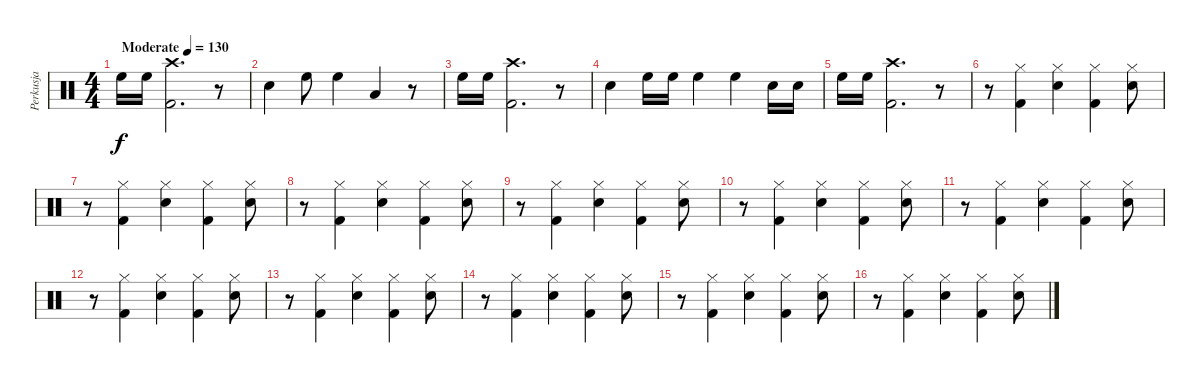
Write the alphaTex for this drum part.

\track ("Perkusja" "Perkusja") {instrument percussion}
\staff {score}
\articulation defaults
\ts (4 4)
\tempo (130 "Moderate")
\clef neutral
\ks c "High Floor Tom (hit)".16{dy f} "High Floor Tom (hit)".16
("Crash high (hit)" "Kick (hit) 2").2{d} r.8 |
"Snare (hit) 2".4 "High Floor Tom (hit)".8 "High Floor Tom (hit)".4 "Low Tom (hit)".4 r.8 |
"High Floor Tom (hit)".16 "High Floor Tom (hit)".16 ("Crash high (hit)" "Kick (hit) 2").2{d} r.8 |
"Snare (hit) 2".4 "High Floor Tom (hit)".16 "High Floor Tom (hit)".16 "High Floor Tom (hit)".4 "High Floor Tom (hit)".4 "Snare (hit) 2".16 "Snare (hit) 2".16 |
"High Floor Tom (hit)".16 "High Floor Tom (hit)".16 ("Crash high (hit)" "Kick (hit) 2").2{d} r.8 |
r.8 ("Hi-Hat (closed)" "Kick (hit) 2").4 ("Hi-Hat (closed)" "Snare (hit) 2").4 ("Hi-Hat (closed)" "Kick (hit) 2").4 ("Hi-Hat (closed)" "Snare (hit) 2").8 |
r.8 ("Hi-Hat (closed)" "Kick (hit) 2").4 ("Hi-Hat (closed)" "Snare (hit) 2").4 ("Hi-Hat (closed)" "Kick (hit) 2").4 ("Hi-Hat (closed)" "Snare (hit) 2").8 |
r.8 ("Hi-Hat (closed)" "Kick (hit) 2").4 ("Hi-Hat (closed)" "Snare (hit) 2").4 ("Hi-Hat (closed)" "Kick (hit) 2").4 ("Hi-Hat (closed)" "Snare (hit) 2").8 |
r.8 ("Hi-Hat (closed)" "Kick (hit) 2").4 ("Hi-Hat (closed)" "Snare (hit) 2").4 ("Hi-Hat (closed)" "Kick (hit) 2").4 ("Hi-Hat (closed)" "Snare (hit) 2").8 |
r.8 ("Hi-Hat (closed)" "Kick (hit) 2").4 ("Hi-Hat (closed)" "Snare (hit) 2").4 ("Hi-Hat (closed)" "Kick (hit) 2").4 ("Hi-Hat (closed)" "Snare (hit) 2").8 |
r.8 ("Hi-Hat (closed)" "Kick (hit) 2").4 ("Hi-Hat (closed)" "Snare (hit) 2").4 ("Hi-Hat (closed)" "Kick (hit) 2").4 ("Hi-Hat (closed)" "Snare (hit) 2").8 |
r.8 ("Hi-Hat (closed)" "Kick (hit) 2").4 ("Hi-Hat (closed)" "Snare (hit) 2").4 ("Hi-Hat (closed)" "Kick (hit) 2").4 ("Hi-Hat (closed)" "Snare (hit) 2").8 |
r.8 ("Hi-Hat (closed)" "Kick (hit) 2").4 ("Hi-Hat (closed)" "Snare (hit) 2").4 ("Hi-Hat (closed)" "Kick (hit) 2").4 ("Hi-Hat (closed)" "Snare (hit) 2").8 |
r.8 ("Hi-Hat (closed)" "Kick (hit) 2").4 ("Hi-Hat (closed)" "Snare (hit) 2").4 ("Hi-Hat (closed)" "Kick (hit) 2").4 ("Hi-Hat (closed)" "Snare (hit) 2").8 |
r.8 ("Hi-Hat (closed)" "Kick (hit) 2").4 ("Hi-Hat (closed)" "Snare (hit) 2").4 ("Hi-Hat (closed)" "Kick (hit) 2").4 ("Hi-Hat (closed)" "Snare (hit) 2").8 |
r.8 ("Hi-Hat (closed)" "Kick (hit) 2").4 ("Hi-Hat (closed)" "Snare (hit) 2").4 ("Hi-Hat (closed)" "Kick (hit) 2").4 ("Hi-Hat (closed)" "Snare (hit) 2").8
